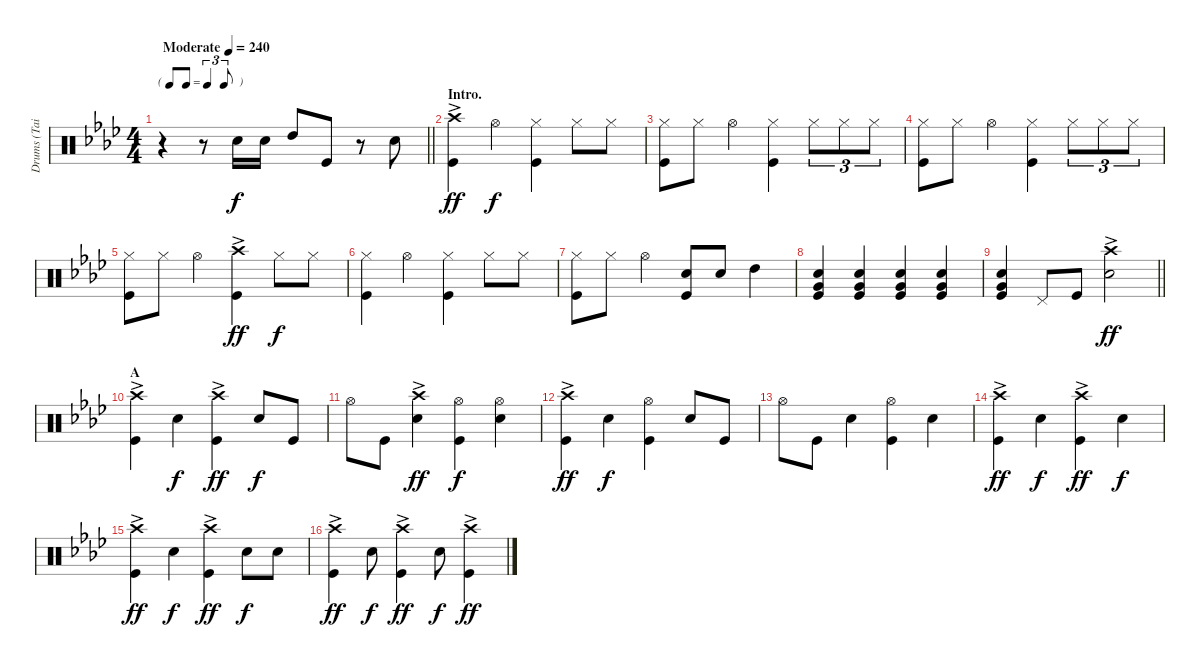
\track ("Drums (Tainaka Ritsu)" "Drums (Tai") {instrument percussion}
\staff {score}
\articulation defaults
\ts (4 4)
\tf triplet8th
\tempo (240 "Moderate")
\clef neutral
\barLineRight lightlight
\ks ab
r.4{dy f} r.8 "Snare (hit) 2".16 "Snare (hit) 2".16 "High Tom (hit)".8 "Kick (hit)".8 r.8 "Snare (hit) 2".8 |
\section ("" "Intro.")
("Crash high (hit)"{ac} "Kick (hit)").4{dy ff} "Hi-Hat (open)".4{dy f} ("Kick (hit)" "Hi-Hat (closed)").4 "Hi-Hat (closed)".8 "Hi-Hat (closed)".8 |
("Kick (hit)" "Hi-Hat (closed)").8 "Hi-Hat (closed)".8 "Hi-Hat (open)".4 ("Hi-Hat (closed)" "Kick (hit)").4 "Hi-Hat (closed)".8{tu (3 2)} "Hi-Hat (closed)".8{tu (3 2)} "Hi-Hat (closed)".8{tu (3 2)} |
("Hi-Hat (closed)" "Kick (hit)").8 "Hi-Hat (closed)".8 "Hi-Hat (open)".4 ("Hi-Hat (closed)" "Kick (hit)").4 "Hi-Hat (closed)".8{tu (3 2)} "Hi-Hat (closed)".8{tu (3 2)} "Hi-Hat (closed)".8{tu (3 2)} |
("Kick (hit)" "Hi-Hat (closed)").8 "Hi-Hat (closed)".8 "Hi-Hat (open)".4 ("Crash high (hit)"{ac} "Kick (hit)").4{dy ff} "Hi-Hat (closed)".8{dy f} "Hi-Hat (closed)".8 |
("Hi-Hat (closed)" "Kick (hit)").4 "Hi-Hat (open)".4 ("Hi-Hat (closed)" "Kick (hit)").4 "Hi-Hat (closed)".8 "Hi-Hat (closed)".8 |
("Hi-Hat (closed)" "Kick (hit)").8 "Hi-Hat (closed)".8 "Hi-Hat (open)".4 ("Kick (hit)" "Snare (hit) 2").8 "Snare (hit) 2".8 "High Tom (hit)".4 |
("Kick (hit)" "Very Low Tom (hit)" "Snare (hit) 2").4{bd 120} ("Kick (hit)" "Very Low Tom (hit)" "Snare (hit) 2").4{bd 240} ("Kick (hit)" "Very Low Tom (hit)" "Snare (hit) 2").4{bd 240} ("Kick (hit)" "Very Low Tom (hit)" "Snare (hit) 2").4{bd 240} |
\barLineRight lightlight
("Kick (hit)" "Very Low Tom (hit)" "Snare (hit) 2").4 "Pedal Hi-Hat (hit)".8 "Kick (hit)".8 ("Snare (hit) 2" "Crash high (hit)"{ac}).2{dy ff} |
\section ("" "A")
("Crash high (hit)"{ac} "Kick (hit)").4 "Snare (hit) 2".4{dy f} ("Crash high (hit)"{ac} "Kick (hit)").4{dy ff} "Snare (hit) 2".8{dy f} "Kick (hit)".8 |
"Hi-Hat (open)".8 "Kick (hit)".8 ("Crash high (hit)"{ac} "Snare (hit) 2").4{dy ff} ("Kick (hit)" "Hi-Hat (open)").4{dy f} ("Hi-Hat (open)" "Snare (hit) 2").4 |
("Crash high (hit)"{ac} "Kick (hit)").4{dy ff} "Snare (hit) 2".4{dy f} ("Hi-Hat (open)" "Kick (hit)").4 "Snare (hit) 2".8 "Kick (hit)".8 |
"Hi-Hat (open)".8 "Kick (hit)".8 "Snare (hit) 2".4 ("Hi-Hat (open)" "Kick (hit)").4 "Snare (hit) 2".4 |
("Crash high (hit)"{ac} "Kick (hit)").4{dy ff} "Snare (hit) 2".4{dy f} ("Crash high (hit)"{ac} "Kick (hit)").4{dy ff} "Snare (hit) 2".4{dy f} |
("Crash high (hit)"{ac} "Kick (hit)").4{dy ff} "Snare (hit) 2".4{dy f} ("Crash high (hit)"{ac} "Kick (hit)").4{dy ff} "Snare (hit) 2".8{dy f} "Snare (hit) 2".8 |
("Crash high (hit)"{ac} "Kick (hit)").4{dy ff} "Snare (hit) 2".8{dy f} ("Kick (hit)" "Crash high (hit)"{ac}).4{dy ff} "Snare (hit) 2".8{dy f} ("Kick (hit)" "Crash high (hit)"{ac}).4{dy ff}
